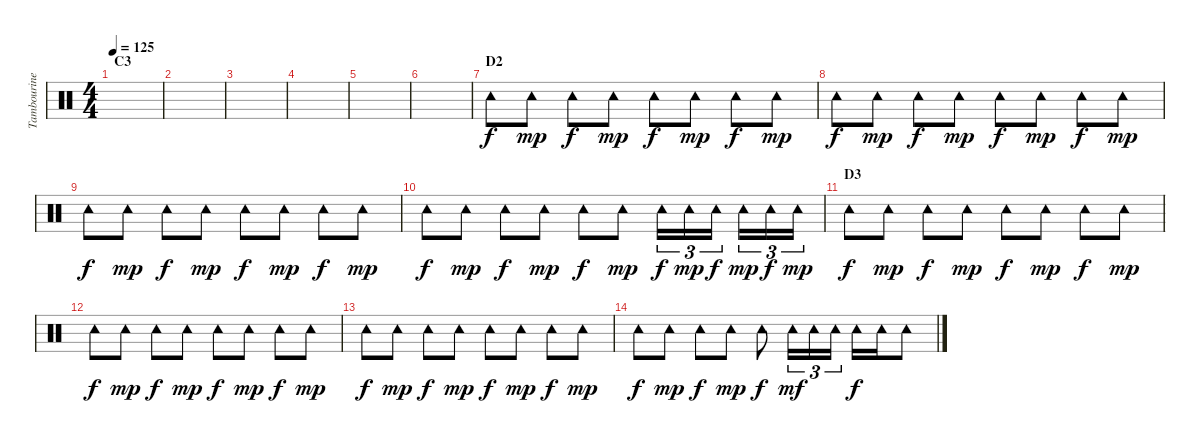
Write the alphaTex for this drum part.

\track ("Tambourine" "Tambourine") {instrument percussion}
\staff {score}
\articulation defaults
\ts (4 4)
\section ("" "C3")
\tempo 125
\clef neutral
\ks c
|
|
|
|
|
|
\section ("" "D2")
"Tambourine (hit)".8{dy f} "Tambourine (hit)".8{dy mp} "Tambourine (hit)".8{dy f} "Tambourine (hit)".8{dy mp} "Tambourine (hit)".8{dy f} "Tambourine (hit)".8{dy mp} "Tambourine (hit)".8{dy f} "Tambourine (hit)".8{dy mp} |
"Tambourine (hit)".8{dy f} "Tambourine (hit)".8{dy mp} "Tambourine (hit)".8{dy f} "Tambourine (hit)".8{dy mp} "Tambourine (hit)".8{dy f} "Tambourine (hit)".8{dy mp} "Tambourine (hit)".8{dy f} "Tambourine (hit)".8{dy mp} |
"Tambourine (hit)".8{dy f} "Tambourine (hit)".8{dy mp} "Tambourine (hit)".8{dy f} "Tambourine (hit)".8{dy mp} "Tambourine (hit)".8{dy f} "Tambourine (hit)".8{dy mp} "Tambourine (hit)".8{dy f} "Tambourine (hit)".8{dy mp} |
"Tambourine (hit)".8{dy f} "Tambourine (hit)".8{dy mp} "Tambourine (hit)".8{dy f} "Tambourine (hit)".8{dy mp} "Tambourine (hit)".8{dy f} "Tambourine (hit)".8{dy mp} "Tambourine (hit)".16{tu (3 2) dy f} "Tambourine (hit)".16{tu (3 2) dy mp} "Tambourine (hit)".16{tu (3 2) dy f} "Tambourine (hit)".16{tu (3 2) dy mp} "Tambourine (hit)".16{tu (3 2) dy f} "Tambourine (hit)".16{tu (3 2) dy mp} |
\section ("" "D3")
"Tambourine (hit)".8{dy f} "Tambourine (hit)".8{dy mp} "Tambourine (hit)".8{dy f} "Tambourine (hit)".8{dy mp} "Tambourine (hit)".8{dy f} "Tambourine (hit)".8{dy mp} "Tambourine (hit)".8{dy f} "Tambourine (hit)".8{dy mp} |
"Tambourine (hit)".8{dy f} "Tambourine (hit)".8{dy mp} "Tambourine (hit)".8{dy f} "Tambourine (hit)".8{dy mp} "Tambourine (hit)".8{dy f} "Tambourine (hit)".8{dy mp} "Tambourine (hit)".8{dy f} "Tambourine (hit)".8{dy mp} |
"Tambourine (hit)".8{dy f} "Tambourine (hit)".8{dy mp} "Tambourine (hit)".8{dy f} "Tambourine (hit)".8{dy mp} "Tambourine (hit)".8{dy f} "Tambourine (hit)".8{dy mp} "Tambourine (hit)".8{dy f} "Tambourine (hit)".8{dy mp} |
"Tambourine (hit)".8{dy f} "Tambourine (hit)".8{dy mp} "Tambourine (hit)".8{dy f} "Tambourine (hit)".8{dy mp} "Tambourine (hit)".8{dy f} "Tambourine (hit)".16{tu (3 2) dy mf} "Tambourine (hit)".16{tu (3 2)} "Tambourine (hit)".16{tu (3 2)} "Tambourine (hit)".16{dy f} "Tambourine (hit)".16 "Tambourine (hit)".8
